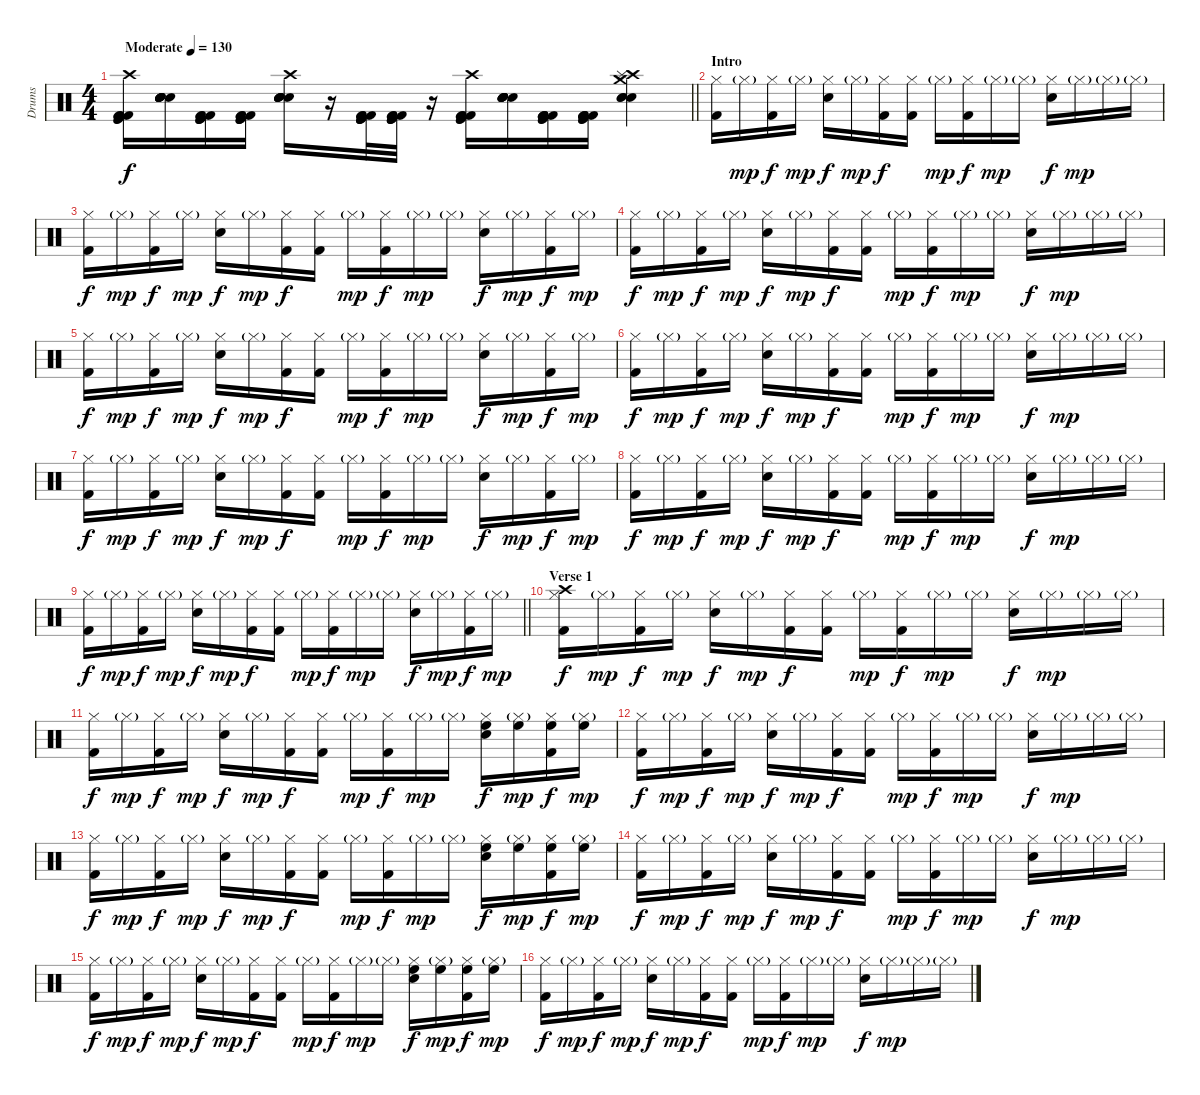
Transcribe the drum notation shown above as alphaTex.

\track ("Drums" "Drums") {instrument percussion}
\staff {score}
\articulation defaults
\ts (4 4)
\tempo (130 "Moderate")
\clef neutral
\barLineRight lightlight
\ks c
("Kick (hit) 2" "Kick (hit)" "Kick (hit) 2" "Kick (hit)" "Kick (hit) 2" "Crash high (hit)").16{dy f volume 9} ("Snare (hit) 2" "Snare (hit) 2" "Snare (hit) 2" "Snare (hit) 2" "Snare (hit) 2" "Snare (hit) 2").16 ("Kick (hit) 2" "Kick (hit)" "Kick (hit) 2" "Kick (hit)" "Kick (hit) 2" "Kick (hit)").16 ("Kick (hit) 2" "Kick (hit)" "Kick (hit) 2" "Kick (hit)" "Kick (hit) 2" "Kick (hit)").16 ("Snare (hit) 2" "Snare (hit) 2" "Snare (hit) 2" "Snare (hit) 2" "Snare (hit) 2" "Crash high (hit)").16 r.16 ("Kick (hit) 2" "Kick (hit)" "Kick (hit) 2" "Kick (hit)" "Kick (hit) 2" "Kick (hit)").32 ("Kick (hit) 2" "Kick (hit)" "Kick (hit) 2" "Kick (hit)" "Kick (hit) 2" "Kick (hit)").32 r.16 ("Kick (hit) 2" "Kick (hit)" "Kick (hit) 2" "Kick (hit)" "Kick (hit) 2" "Crash high (hit)").16 ("Snare (hit) 2" "Snare (hit) 2" "Snare (hit) 2" "Snare (hit) 2" "Snare (hit) 2" "Snare (hit) 2").16 ("Kick (hit) 2" "Kick (hit)" "Kick (hit) 2" "Kick (hit)" "Kick (hit) 2" "Kick (hit) 2").16 ("Kick (hit) 2" "Kick (hit)" "Kick (hit) 2" "Kick (hit)" "Kick (hit) 2" "Kick (hit) 2").16 ("Snare (hit) 2" "Snare (hit) 2" "Electric Snare (hit)" "Crash high (hit)" "Splash (hit)" "Crash medium (hit)").4 |
\section ("" "Intro")
("Hi-Hat (closed)" "Kick (hit) 2").16{volume 12} "Hi-Hat (closed)"{g}.16{dy mp} ("Hi-Hat (closed)" "Kick (hit) 2").16{dy f} "Hi-Hat (closed)"{g}.16{dy mp} ("Hi-Hat (closed)" "Snare (hit) 2").16{dy f} "Hi-Hat (closed)"{g}.16{dy mp} ("Hi-Hat (closed)" "Kick (hit) 2").16{dy f} ("Hi-Hat (closed)" "Kick (hit) 2").16 "Hi-Hat (closed)"{g}.16{dy mp} ("Hi-Hat (closed)" "Kick (hit) 2").16{dy f} "Hi-Hat (closed)"{g}.16{dy mp} "Hi-Hat (closed)"{g}.16 ("Hi-Hat (closed)" "Snare (hit) 2").16{dy f} "Hi-Hat (closed)"{g}.16{dy mp} "Hi-Hat (closed)"{g}.16 "Hi-Hat (closed)"{g}.16 |
("Hi-Hat (closed)" "Kick (hit) 2").16{dy f} "Hi-Hat (closed)"{g}.16{dy mp} ("Hi-Hat (closed)" "Kick (hit) 2").16{dy f} "Hi-Hat (closed)"{g}.16{dy mp} ("Hi-Hat (closed)" "Snare (hit) 2").16{dy f} "Hi-Hat (closed)"{g}.16{dy mp} ("Hi-Hat (closed)" "Kick (hit) 2").16{dy f} ("Hi-Hat (closed)" "Kick (hit) 2").16 "Hi-Hat (closed)"{g}.16{dy mp} ("Hi-Hat (closed)" "Kick (hit) 2").16{dy f} "Hi-Hat (closed)"{g}.16{dy mp} "Hi-Hat (closed)"{g}.16 ("Hi-Hat (closed)" "Snare (hit) 2").16{dy f} "Hi-Hat (closed)"{g}.16{dy mp} ("Hi-Hat (closed)" "Kick (hit) 2").16{dy f} "Hi-Hat (closed)"{g}.16{dy mp} |
("Hi-Hat (closed)" "Kick (hit) 2").16{dy f} "Hi-Hat (closed)"{g}.16{dy mp} ("Hi-Hat (closed)" "Kick (hit) 2").16{dy f} "Hi-Hat (closed)"{g}.16{dy mp} ("Hi-Hat (closed)" "Snare (hit) 2").16{dy f} "Hi-Hat (closed)"{g}.16{dy mp} ("Hi-Hat (closed)" "Kick (hit) 2").16{dy f} ("Hi-Hat (closed)" "Kick (hit) 2").16 "Hi-Hat (closed)"{g}.16{dy mp} ("Hi-Hat (closed)" "Kick (hit) 2").16{dy f} "Hi-Hat (closed)"{g}.16{dy mp} "Hi-Hat (closed)"{g}.16 ("Hi-Hat (closed)" "Snare (hit) 2").16{dy f} "Hi-Hat (closed)"{g}.16{dy mp} "Hi-Hat (closed)"{g}.16 "Hi-Hat (closed)"{g}.16 |
("Hi-Hat (closed)" "Kick (hit) 2").16{dy f} "Hi-Hat (closed)"{g}.16{dy mp} ("Hi-Hat (closed)" "Kick (hit) 2").16{dy f} "Hi-Hat (closed)"{g}.16{dy mp} ("Hi-Hat (closed)" "Snare (hit) 2").16{dy f} "Hi-Hat (closed)"{g}.16{dy mp} ("Hi-Hat (closed)" "Kick (hit) 2").16{dy f} ("Hi-Hat (closed)" "Kick (hit) 2").16 "Hi-Hat (closed)"{g}.16{dy mp} ("Hi-Hat (closed)" "Kick (hit) 2").16{dy f} "Hi-Hat (closed)"{g}.16{dy mp} "Hi-Hat (closed)"{g}.16 ("Hi-Hat (closed)" "Snare (hit) 2").16{dy f} "Hi-Hat (closed)"{g}.16{dy mp} ("Hi-Hat (closed)" "Kick (hit) 2").16{dy f} "Hi-Hat (closed)"{g}.16{dy mp} |
("Hi-Hat (closed)" "Kick (hit) 2").16{dy f} "Hi-Hat (closed)"{g}.16{dy mp} ("Hi-Hat (closed)" "Kick (hit) 2").16{dy f} "Hi-Hat (closed)"{g}.16{dy mp} ("Hi-Hat (closed)" "Snare (hit) 2").16{dy f} "Hi-Hat (closed)"{g}.16{dy mp} ("Hi-Hat (closed)" "Kick (hit) 2").16{dy f} ("Hi-Hat (closed)" "Kick (hit) 2").16 "Hi-Hat (closed)"{g}.16{dy mp} ("Hi-Hat (closed)" "Kick (hit) 2").16{dy f} "Hi-Hat (closed)"{g}.16{dy mp} "Hi-Hat (closed)"{g}.16 ("Hi-Hat (closed)" "Snare (hit) 2").16{dy f} "Hi-Hat (closed)"{g}.16{dy mp} "Hi-Hat (closed)"{g}.16 "Hi-Hat (closed)"{g}.16 |
("Hi-Hat (closed)" "Kick (hit) 2").16{dy f} "Hi-Hat (closed)"{g}.16{dy mp} ("Hi-Hat (closed)" "Kick (hit) 2").16{dy f} "Hi-Hat (closed)"{g}.16{dy mp} ("Hi-Hat (closed)" "Snare (hit) 2").16{dy f} "Hi-Hat (closed)"{g}.16{dy mp} ("Hi-Hat (closed)" "Kick (hit) 2").16{dy f} ("Hi-Hat (closed)" "Kick (hit) 2").16 "Hi-Hat (closed)"{g}.16{dy mp} ("Hi-Hat (closed)" "Kick (hit) 2").16{dy f} "Hi-Hat (closed)"{g}.16{dy mp} "Hi-Hat (closed)"{g}.16 ("Hi-Hat (closed)" "Snare (hit) 2").16{dy f} "Hi-Hat (closed)"{g}.16{dy mp} ("Hi-Hat (closed)" "Kick (hit) 2").16{dy f} "Hi-Hat (closed)"{g}.16{dy mp} |
("Hi-Hat (closed)" "Kick (hit) 2").16{dy f} "Hi-Hat (closed)"{g}.16{dy mp} ("Hi-Hat (closed)" "Kick (hit) 2").16{dy f} "Hi-Hat (closed)"{g}.16{dy mp} ("Hi-Hat (closed)" "Snare (hit) 2").16{dy f} "Hi-Hat (closed)"{g}.16{dy mp} ("Hi-Hat (closed)" "Kick (hit) 2").16{dy f} ("Hi-Hat (closed)" "Kick (hit) 2").16 "Hi-Hat (closed)"{g}.16{dy mp} ("Hi-Hat (closed)" "Kick (hit) 2").16{dy f} "Hi-Hat (closed)"{g}.16{dy mp} "Hi-Hat (closed)"{g}.16 ("Hi-Hat (closed)" "Snare (hit) 2").16{dy f} "Hi-Hat (closed)"{g}.16{dy mp} "Hi-Hat (closed)"{g}.16 "Hi-Hat (closed)"{g}.16 |
\barLineRight lightlight
("Hi-Hat (closed)" "Kick (hit) 2").16{dy f} "Hi-Hat (closed)"{g}.16{dy mp} ("Hi-Hat (closed)" "Kick (hit) 2").16{dy f} "Hi-Hat (closed)"{g}.16{dy mp} ("Hi-Hat (closed)" "Snare (hit) 2").16{dy f} "Hi-Hat (closed)"{g}.16{dy mp} ("Hi-Hat (closed)" "Kick (hit) 2").16{dy f} ("Hi-Hat (closed)" "Kick (hit) 2").16 "Hi-Hat (closed)"{g}.16{dy mp} ("Hi-Hat (closed)" "Kick (hit) 2").16{dy f} "Hi-Hat (closed)"{g}.16{dy mp} "Hi-Hat (closed)"{g}.16 ("Hi-Hat (closed)" "Snare (hit) 2").16{dy f} "Hi-Hat (closed)"{g}.16{dy mp} ("Hi-Hat (closed)" "Kick (hit) 2").16{dy f} "Hi-Hat (closed)"{g}.16{dy mp} |
\section ("" "Verse 1")
("Hi-Hat (closed)" "Kick (hit) 2" "Crash high (hit)").16{dy f} "Hi-Hat (closed)"{g}.16{dy mp} ("Hi-Hat (closed)" "Kick (hit) 2").16{dy f} "Hi-Hat (closed)"{g}.16{dy mp} ("Hi-Hat (closed)" "Snare (hit) 2").16{dy f} "Hi-Hat (closed)"{g}.16{dy mp} ("Hi-Hat (closed)" "Kick (hit) 2").16{dy f} ("Hi-Hat (closed)" "Kick (hit) 2").16 "Hi-Hat (closed)"{g}.16{dy mp} ("Hi-Hat (closed)" "Kick (hit) 2").16{dy f} "Hi-Hat (closed)"{g}.16{dy mp} "Hi-Hat (closed)"{g}.16 ("Hi-Hat (closed)" "Snare (hit) 2").16{dy f} "Hi-Hat (closed)"{g}.16{dy mp} "Hi-Hat (closed)"{g}.16 "Hi-Hat (closed)"{g}.16 |
("Hi-Hat (closed)" "Kick (hit) 2").16{dy f} "Hi-Hat (closed)"{g}.16{dy mp} ("Hi-Hat (closed)" "Kick (hit) 2").16{dy f} "Hi-Hat (closed)"{g}.16{dy mp} ("Hi-Hat (closed)" "Snare (hit) 2").16{dy f} "Hi-Hat (closed)"{g}.16{dy mp} ("Hi-Hat (closed)" "Kick (hit) 2").16{dy f} ("Hi-Hat (closed)" "Kick (hit) 2").16 "Hi-Hat (closed)"{g}.16{dy mp} ("Hi-Hat (closed)" "Kick (hit) 2").16{dy f} "Hi-Hat (closed)"{g}.16{dy mp} "Hi-Hat (closed)"{g}.16 ("Hi-Hat (closed)" "Snare (hit) 2" "High Floor Tom (hit)").16{dy f} ("Hi-Hat (closed)"{g} "High Floor Tom (hit)").16{dy mp} ("Hi-Hat (closed)" "Kick (hit) 2" "High Floor Tom (hit)").16{dy f} ("Hi-Hat (closed)"{g} "High Floor Tom (hit)").16{dy mp} |
("Hi-Hat (closed)" "Kick (hit) 2").16{dy f} "Hi-Hat (closed)"{g}.16{dy mp} ("Hi-Hat (closed)" "Kick (hit) 2").16{dy f} "Hi-Hat (closed)"{g}.16{dy mp} ("Hi-Hat (closed)" "Snare (hit) 2").16{dy f} "Hi-Hat (closed)"{g}.16{dy mp} ("Hi-Hat (closed)" "Kick (hit) 2").16{dy f} ("Hi-Hat (closed)" "Kick (hit) 2").16 "Hi-Hat (closed)"{g}.16{dy mp} ("Hi-Hat (closed)" "Kick (hit) 2").16{dy f} "Hi-Hat (closed)"{g}.16{dy mp} "Hi-Hat (closed)"{g}.16 ("Hi-Hat (closed)" "Snare (hit) 2").16{dy f} "Hi-Hat (closed)"{g}.16{dy mp} "Hi-Hat (closed)"{g}.16 "Hi-Hat (closed)"{g}.16 |
("Hi-Hat (closed)" "Kick (hit) 2").16{dy f} "Hi-Hat (closed)"{g}.16{dy mp} ("Hi-Hat (closed)" "Kick (hit) 2").16{dy f} "Hi-Hat (closed)"{g}.16{dy mp} ("Hi-Hat (closed)" "Snare (hit) 2").16{dy f} "Hi-Hat (closed)"{g}.16{dy mp} ("Hi-Hat (closed)" "Kick (hit) 2").16{dy f} ("Hi-Hat (closed)" "Kick (hit) 2").16 "Hi-Hat (closed)"{g}.16{dy mp} ("Hi-Hat (closed)" "Kick (hit) 2").16{dy f} "Hi-Hat (closed)"{g}.16{dy mp} "Hi-Hat (closed)"{g}.16 ("Hi-Hat (closed)" "Snare (hit) 2" "High Floor Tom (hit)").16{dy f} ("Hi-Hat (closed)"{g} "High Floor Tom (hit)").16{dy mp} ("Hi-Hat (closed)" "Kick (hit) 2" "High Floor Tom (hit)").16{dy f} ("Hi-Hat (closed)"{g} "High Floor Tom (hit)").16{dy mp} |
("Hi-Hat (closed)" "Kick (hit) 2").16{dy f} "Hi-Hat (closed)"{g}.16{dy mp} ("Hi-Hat (closed)" "Kick (hit) 2").16{dy f} "Hi-Hat (closed)"{g}.16{dy mp} ("Hi-Hat (closed)" "Snare (hit) 2").16{dy f} "Hi-Hat (closed)"{g}.16{dy mp} ("Hi-Hat (closed)" "Kick (hit) 2").16{dy f} ("Hi-Hat (closed)" "Kick (hit) 2").16 "Hi-Hat (closed)"{g}.16{dy mp} ("Hi-Hat (closed)" "Kick (hit) 2").16{dy f} "Hi-Hat (closed)"{g}.16{dy mp} "Hi-Hat (closed)"{g}.16 ("Hi-Hat (closed)" "Snare (hit) 2").16{dy f} "Hi-Hat (closed)"{g}.16{dy mp} "Hi-Hat (closed)"{g}.16 "Hi-Hat (closed)"{g}.16 |
("Hi-Hat (closed)" "Kick (hit) 2").16{dy f} "Hi-Hat (closed)"{g}.16{dy mp} ("Hi-Hat (closed)" "Kick (hit) 2").16{dy f} "Hi-Hat (closed)"{g}.16{dy mp} ("Hi-Hat (closed)" "Snare (hit) 2").16{dy f} "Hi-Hat (closed)"{g}.16{dy mp} ("Hi-Hat (closed)" "Kick (hit) 2").16{dy f} ("Hi-Hat (closed)" "Kick (hit) 2").16 "Hi-Hat (closed)"{g}.16{dy mp} ("Hi-Hat (closed)" "Kick (hit) 2").16{dy f} "Hi-Hat (closed)"{g}.16{dy mp} "Hi-Hat (closed)"{g}.16 ("Hi-Hat (closed)" "Snare (hit) 2" "High Floor Tom (hit)").16{dy f} ("Hi-Hat (closed)"{g} "High Floor Tom (hit)").16{dy mp} ("Hi-Hat (closed)" "Kick (hit) 2" "High Floor Tom (hit)").16{dy f} ("Hi-Hat (closed)"{g} "High Floor Tom (hit)").16{dy mp} |
("Hi-Hat (closed)" "Kick (hit) 2").16{dy f} "Hi-Hat (closed)"{g}.16{dy mp} ("Hi-Hat (closed)" "Kick (hit) 2").16{dy f} "Hi-Hat (closed)"{g}.16{dy mp} ("Hi-Hat (closed)" "Snare (hit) 2").16{dy f} "Hi-Hat (closed)"{g}.16{dy mp} ("Hi-Hat (closed)" "Kick (hit) 2").16{dy f} ("Hi-Hat (closed)" "Kick (hit) 2").16 "Hi-Hat (closed)"{g}.16{dy mp} ("Hi-Hat (closed)" "Kick (hit) 2").16{dy f} "Hi-Hat (closed)"{g}.16{dy mp} "Hi-Hat (closed)"{g}.16 ("Hi-Hat (closed)" "Snare (hit) 2").16{dy f} "Hi-Hat (closed)"{g}.16{dy mp} "Hi-Hat (closed)"{g}.16 "Hi-Hat (closed)"{g}.16
